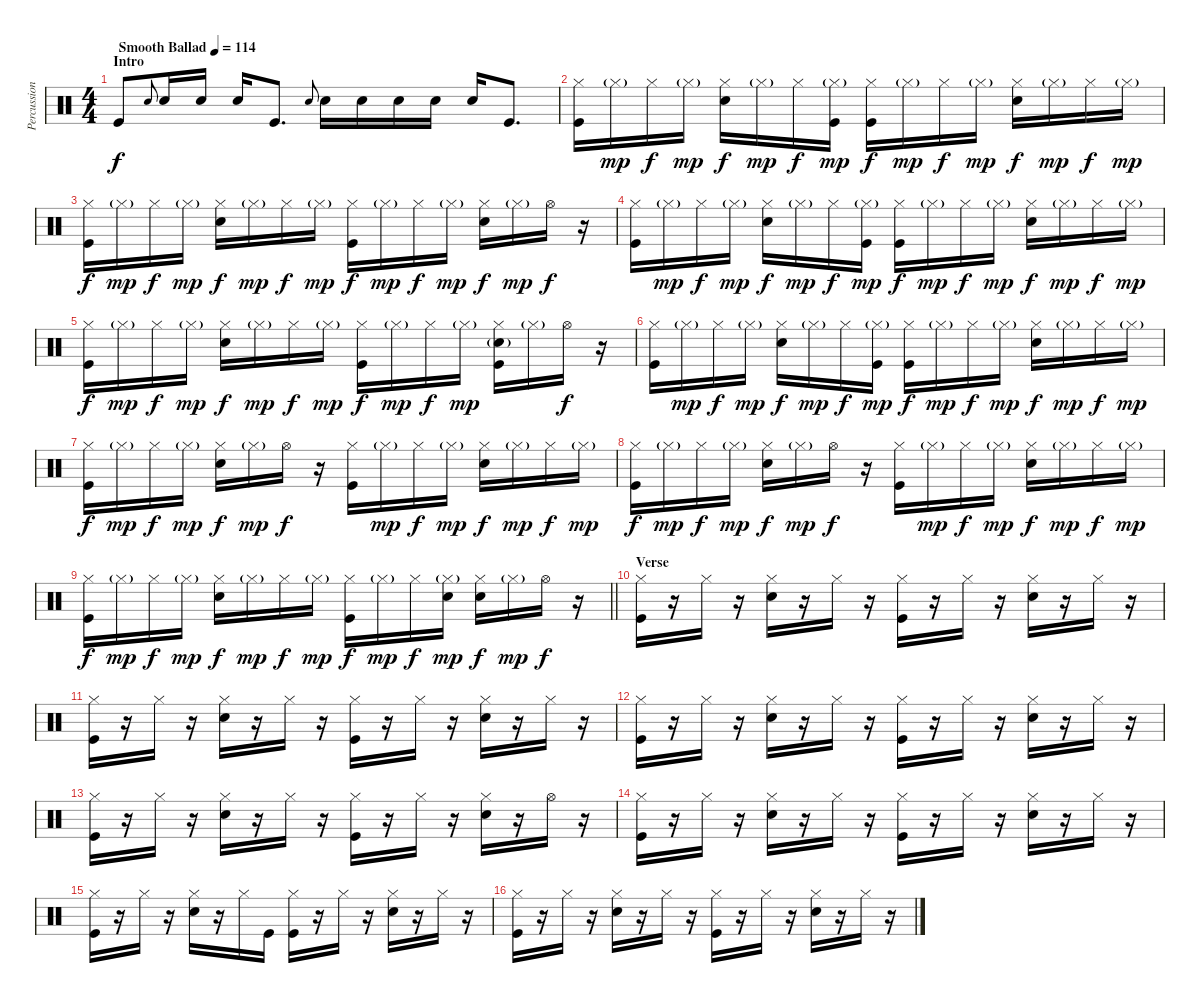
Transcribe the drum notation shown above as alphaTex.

\track ("Percussion" "Percussion") {instrument percussion bank 177}
\staff {score}
\articulation defaults
\ts (4 4)
\section ("" "Intro")
\tempo (114 "Smooth Ballad")
\clef neutral
\ks c "Kick (hit)".8{dy f} "Snare (hit) 2"{h}.8{gr onbeat} "Snare (hit) 2".16 "Snare (hit) 2".16 "Snare (hit) 2".16 "Kick (hit)".8{d} "Snare (hit) 2"{h}.8{gr onbeat} "Snare (hit) 2".16 "Snare (hit) 2".16 "Snare (hit) 2".16 "Snare (hit) 2".16 "Snare (hit) 2".16 "Kick (hit)".8{d}
|
("Hi-Hat (closed)" "Kick (hit)").16 "Hi-Hat (closed)"{g}.16{dy mp} "Hi-Hat (closed)".16{dy f} "Hi-Hat (closed)"{g}.16{dy mp} ("Hi-Hat (closed)" "Snare (hit) 2").16{dy f} "Hi-Hat (closed)"{g}.16{dy mp} "Hi-Hat (closed)".16{dy f} ("Hi-Hat (closed)"{g} "Kick (hit)").16{dy mp} ("Hi-Hat (closed)" "Kick (hit)").16{dy f} "Hi-Hat (closed)"{g}.16{dy mp} "Hi-Hat (closed)".16{dy f} "Hi-Hat (closed)"{g}.16{dy mp} ("Hi-Hat (closed)" "Snare (hit) 2").16{dy f} "Hi-Hat (closed)"{g}.16{dy mp} "Hi-Hat (closed)".16{dy f} "Hi-Hat (closed)"{g}.16{dy mp} |
("Hi-Hat (closed)" "Kick (hit)").16{dy f} "Hi-Hat (closed)"{g}.16{dy mp} "Hi-Hat (closed)".16{dy f} "Hi-Hat (closed)"{g}.16{dy mp} ("Hi-Hat (closed)" "Snare (hit) 2").16{dy f} "Hi-Hat (closed)"{g}.16{dy mp} "Hi-Hat (closed)".16{dy f} "Hi-Hat (closed)"{g}.16{dy mp} ("Hi-Hat (closed)" "Kick (hit)").16{dy f} "Hi-Hat (closed)"{g}.16{dy mp} "Hi-Hat (closed)".16{dy f} "Hi-Hat (closed)"{g}.16{dy mp} ("Hi-Hat (closed)" "Snare (hit) 2").16{dy f} "Hi-Hat (closed)"{g}.16{dy mp} "Hi-Hat (open)".16{dy f} r.16 |
("Hi-Hat (closed)" "Kick (hit)").16 "Hi-Hat (closed)"{g}.16{dy mp} "Hi-Hat (closed)".16{dy f} "Hi-Hat (closed)"{g}.16{dy mp} ("Hi-Hat (closed)" "Snare (hit) 2").16{dy f} "Hi-Hat (closed)"{g}.16{dy mp} "Hi-Hat (closed)".16{dy f} ("Hi-Hat (closed)"{g} "Kick (hit)").16{dy mp} ("Hi-Hat (closed)" "Kick (hit)").16{dy f} "Hi-Hat (closed)"{g}.16{dy mp} "Hi-Hat (closed)".16{dy f} "Hi-Hat (closed)"{g}.16{dy mp} ("Hi-Hat (closed)" "Snare (hit) 2").16{dy f} "Hi-Hat (closed)"{g}.16{dy mp} "Hi-Hat (closed)".16{dy f} "Hi-Hat (closed)"{g}.16{dy mp} |
("Hi-Hat (closed)" "Kick (hit)").16{dy f} "Hi-Hat (closed)"{g}.16{dy mp} "Hi-Hat (closed)".16{dy f} "Hi-Hat (closed)"{g}.16{dy mp} ("Hi-Hat (closed)" "Snare (hit) 2").16{dy f} "Hi-Hat (closed)"{g}.16{dy mp} "Hi-Hat (closed)".16{dy f} "Hi-Hat (closed)"{g}.16{dy mp} ("Hi-Hat (closed)" "Kick (hit)").16{dy f} "Hi-Hat (closed)"{g}.16{dy mp} "Hi-Hat (closed)".16{dy f} "Hi-Hat (closed)"{g}.16{dy mp} ("Hi-Hat (closed)" "Snare (hit) 2"{g} "Kick (hit)").16 "Hi-Hat (closed)"{g}.16 "Hi-Hat (open)".16{dy f} r.16 |
("Hi-Hat (closed)" "Kick (hit)").16 "Hi-Hat (closed)"{g}.16{dy mp} "Hi-Hat (closed)".16{dy f} "Hi-Hat (closed)"{g}.16{dy mp} ("Hi-Hat (closed)" "Snare (hit) 2").16{dy f} "Hi-Hat (closed)"{g}.16{dy mp} "Hi-Hat (closed)".16{dy f} ("Hi-Hat (closed)"{g} "Kick (hit)").16{dy mp} ("Hi-Hat (closed)" "Kick (hit)").16{dy f} "Hi-Hat (closed)"{g}.16{dy mp} "Hi-Hat (closed)".16{dy f} "Hi-Hat (closed)"{g}.16{dy mp} ("Hi-Hat (closed)" "Snare (hit) 2").16{dy f} "Hi-Hat (closed)"{g}.16{dy mp} "Hi-Hat (closed)".16{dy f} "Hi-Hat (closed)"{g}.16{dy mp} |
("Hi-Hat (closed)" "Kick (hit)").16{dy f} "Hi-Hat (closed)"{g}.16{dy mp} "Hi-Hat (closed)".16{dy f} "Hi-Hat (closed)"{g}.16{dy mp} ("Hi-Hat (closed)" "Snare (hit) 2").16{dy f} "Hi-Hat (closed)"{g}.16{dy mp} "Hi-Hat (open)".16{dy f} r.16 ("Hi-Hat (closed)" "Kick (hit)").16 "Hi-Hat (closed)"{g}.16{dy mp} "Hi-Hat (closed)".16{dy f} "Hi-Hat (closed)"{g}.16{dy mp} ("Hi-Hat (closed)" "Snare (hit) 2").16{dy f} "Hi-Hat (closed)"{g}.16{dy mp} "Hi-Hat (closed)".16{dy f} "Hi-Hat (closed)"{g}.16{dy mp} |
("Hi-Hat (closed)" "Kick (hit)").16{dy f} "Hi-Hat (closed)"{g}.16{dy mp} "Hi-Hat (closed)".16{dy f} "Hi-Hat (closed)"{g}.16{dy mp} ("Hi-Hat (closed)" "Snare (hit) 2").16{dy f} "Hi-Hat (closed)"{g}.16{dy mp} "Hi-Hat (open)".16{dy f} r.16 ("Hi-Hat (closed)" "Kick (hit)").16 "Hi-Hat (closed)"{g}.16{dy mp} "Hi-Hat (closed)".16{dy f} "Hi-Hat (closed)"{g}.16{dy mp} ("Hi-Hat (closed)" "Snare (hit) 2").16{dy f} "Hi-Hat (closed)"{g}.16{dy mp} "Hi-Hat (closed)".16{dy f} "Hi-Hat (closed)"{g}.16{dy mp} |
\barLineRight lightlight
("Hi-Hat (closed)" "Kick (hit)").16{dy f} "Hi-Hat (closed)"{g}.16{dy mp} "Hi-Hat (closed)".16{dy f} "Hi-Hat (closed)"{g}.16{dy mp} ("Hi-Hat (closed)" "Snare (hit) 2").16{dy f} "Hi-Hat (closed)"{g}.16{dy mp} "Hi-Hat (closed)".16{dy f} "Hi-Hat (closed)"{g}.16{dy mp} ("Hi-Hat (closed)" "Kick (hit)").16{dy f} "Hi-Hat (closed)"{g}.16{dy mp} "Hi-Hat (closed)".16{dy f} ("Hi-Hat (closed)"{g} "Snare (hit) 2").16{dy mp} ("Hi-Hat (closed)" "Snare (hit) 2").16{dy f} "Hi-Hat (closed)"{g}.16{dy mp} "Hi-Hat (open)".16{dy f} r.16 |
\section ("" "Verse")
("Hi-Hat (closed)" "Kick (hit)").16 r.16 "Hi-Hat (closed)".16 r.16 ("Hi-Hat (closed)" "Snare (hit) 2").16 r.16 "Hi-Hat (closed)".16 r.16 ("Hi-Hat (closed)" "Kick (hit)").16 r.16 "Hi-Hat (closed)".16 r.16 ("Hi-Hat (closed)" "Snare (hit) 2").16 r.16 "Hi-Hat (closed)".16 r.16 |
("Hi-Hat (closed)" "Kick (hit)").16 r.16 "Hi-Hat (closed)".16 r.16 ("Hi-Hat (closed)" "Snare (hit) 2").16 r.16 "Hi-Hat (closed)".16 r.16 ("Hi-Hat (closed)" "Kick (hit)").16 r.16 "Hi-Hat (closed)".16 r.16 ("Hi-Hat (closed)" "Snare (hit) 2").16 r.16 "Hi-Hat (closed)".16 r.16 |
("Hi-Hat (closed)" "Kick (hit)").16 r.16 "Hi-Hat (closed)".16 r.16 ("Hi-Hat (closed)" "Snare (hit) 2").16 r.16 "Hi-Hat (closed)".16 r.16 ("Hi-Hat (closed)" "Kick (hit)").16 r.16 "Hi-Hat (closed)".16 r.16 ("Hi-Hat (closed)" "Snare (hit) 2").16 r.16 "Hi-Hat (closed)".16 r.16 |
("Hi-Hat (closed)" "Kick (hit)").16 r.16 "Hi-Hat (closed)".16 r.16 ("Hi-Hat (closed)" "Snare (hit) 2").16 r.16 "Hi-Hat (closed)".16 r.16 ("Hi-Hat (closed)" "Kick (hit)").16 r.16 "Hi-Hat (closed)".16 r.16 ("Hi-Hat (closed)" "Snare (hit) 2").16 r.16 "Hi-Hat (open)".16 r.16 |
("Hi-Hat (closed)" "Kick (hit)").16 r.16 "Hi-Hat (closed)".16 r.16 ("Hi-Hat (closed)" "Snare (hit) 2").16 r.16 "Hi-Hat (closed)".16 r.16 ("Hi-Hat (closed)" "Kick (hit)").16 r.16 "Hi-Hat (closed)".16 r.16 ("Hi-Hat (closed)" "Snare (hit) 2").16 r.16 "Hi-Hat (closed)".16 r.16 |
("Hi-Hat (closed)" "Kick (hit)").16 r.16 "Hi-Hat (closed)".16 r.16 ("Hi-Hat (closed)" "Snare (hit) 2").16 r.16 "Hi-Hat (closed)".16 "Kick (hit)".16 ("Hi-Hat (closed)" "Kick (hit)").16 r.16 "Hi-Hat (closed)".16 r.16 ("Hi-Hat (closed)" "Snare (hit) 2").16 r.16 "Hi-Hat (closed)".16 r.16 |
("Hi-Hat (closed)" "Kick (hit)").16 r.16 "Hi-Hat (closed)".16 r.16 ("Hi-Hat (closed)" "Snare (hit) 2").16 r.16 "Hi-Hat (closed)".16 r.16 ("Hi-Hat (closed)" "Kick (hit)").16 r.16 "Hi-Hat (closed)".16 r.16 ("Hi-Hat (closed)" "Snare (hit) 2").16 r.16 "Hi-Hat (closed)".16 r.16
